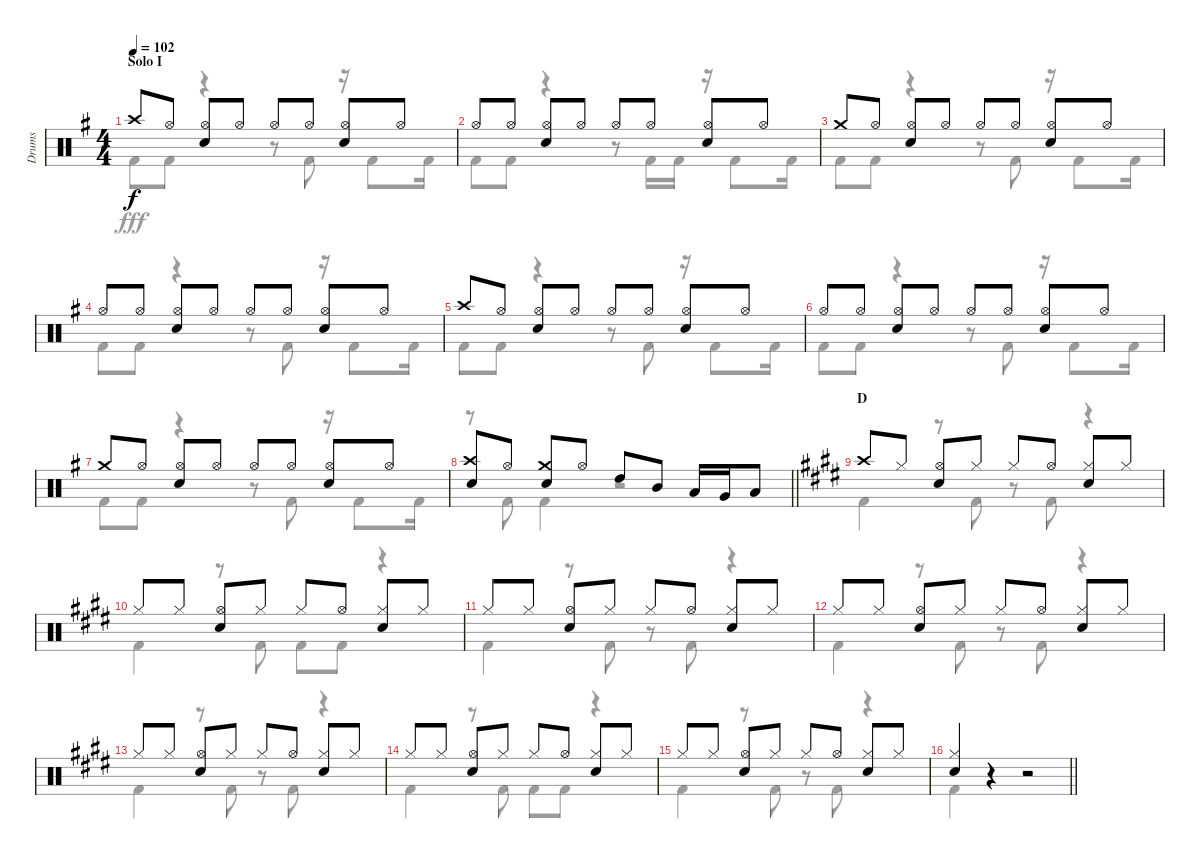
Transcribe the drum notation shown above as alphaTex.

\track ("Drums" "Drums") {instrument percussion}
\staff {score}
\articulation defaults
\voice
\ts (4 4)
\section ("" "Solo I")
\tempo 102
\clef neutral
\ks g "Crash high (hit)".8{dy f} "Hi-Hat (open)".8
("Hi-Hat (open)" "Snare (hit) 2").8 "Hi-Hat (open)".8 "Hi-Hat (open)".8 "Hi-Hat (open)".8 ("Hi-Hat (open)" "Snare (hit) 2").8 "Hi-Hat (open)".8 |
"Hi-Hat (open)".8 "Hi-Hat (open)".8 ("Hi-Hat (open)" "Snare (hit) 2").8 "Hi-Hat (open)".8 "Hi-Hat (open)".8 "Hi-Hat (open)".8 ("Hi-Hat (open)" "Snare (hit) 2").8 "Hi-Hat (open)".8 |
"Crash medium (hit)".8 "Hi-Hat (open)".8 ("Hi-Hat (open)" "Snare (hit) 2").8 "Hi-Hat (open)".8 "Hi-Hat (open)".8 "Hi-Hat (open)".8 ("Hi-Hat (open)" "Snare (hit) 2").8 "Hi-Hat (open)".8 |
"Hi-Hat (open)".8 "Hi-Hat (open)".8 ("Hi-Hat (open)" "Snare (hit) 2").8 "Hi-Hat (open)".8 "Hi-Hat (open)".8 "Hi-Hat (open)".8 ("Hi-Hat (open)" "Snare (hit) 2").8 "Hi-Hat (open)".8 |
"Crash high (hit)".8 "Hi-Hat (open)".8 ("Hi-Hat (open)" "Snare (hit) 2").8 "Hi-Hat (open)".8 "Hi-Hat (open)".8 "Hi-Hat (open)".8 ("Hi-Hat (open)" "Snare (hit) 2").8 "Hi-Hat (open)".8 |
"Hi-Hat (open)".8 "Hi-Hat (open)".8 ("Hi-Hat (open)" "Snare (hit) 2").8 "Hi-Hat (open)".8 "Hi-Hat (open)".8 "Hi-Hat (open)".8 ("Hi-Hat (open)" "Snare (hit) 2").8 "Hi-Hat (open)".8 |
"Crash medium (hit)".8 "Hi-Hat (open)".8 ("Hi-Hat (open)" "Snare (hit) 2").8 "Hi-Hat (open)".8 "Hi-Hat (open)".8 "Hi-Hat (open)".8 ("Hi-Hat (open)" "Snare (hit) 2").8 "Hi-Hat (open)".8 |
\barLineRight lightlight
("Crash high (hit)" "Snare (hit) 2").8 "Hi-Hat (open)".8 ("Crash medium (hit)" "Snare (hit) 2").8 "Hi-Hat (open)".8 "High Tom (hit)".8 "Mid Tom (hit)".8 "Low Tom (hit)".16 "Very Low Tom (hit)".16 "Low Floor Tom (hit)".8 |
\section ("" "D")
\ks e "Crash high (hit)".8 "Hi-Hat (closed)".8
("Hi-Hat (open)" "Snare (hit) 2").8 "Hi-Hat (closed)".8 "Hi-Hat (closed)".8 "Hi-Hat (open)".8 ("Hi-Hat (closed)" "Snare (hit) 2").8 "Hi-Hat (closed)".8 |
"Hi-Hat (closed)".8 "Hi-Hat (closed)".8 ("Hi-Hat (open)" "Snare (hit) 2").8 "Hi-Hat (closed)".8 "Hi-Hat (closed)".8 "Hi-Hat (open)".8 ("Hi-Hat (closed)" "Snare (hit) 2").8 "Hi-Hat (closed)".8 |
"Hi-Hat (closed)".8 "Hi-Hat (closed)".8 ("Hi-Hat (open)" "Snare (hit) 2").8 "Hi-Hat (closed)".8 "Hi-Hat (closed)".8 "Hi-Hat (open)".8 ("Hi-Hat (closed)" "Snare (hit) 2").8 "Hi-Hat (closed)".8 |
"Hi-Hat (closed)".8 "Hi-Hat (closed)".8 ("Hi-Hat (open)" "Snare (hit) 2").8 "Hi-Hat (closed)".8 "Hi-Hat (closed)".8 "Hi-Hat (open)".8 ("Hi-Hat (closed)" "Snare (hit) 2").8 "Hi-Hat (closed)".8 |
"Hi-Hat (closed)".8 "Hi-Hat (closed)".8 ("Hi-Hat (open)" "Snare (hit) 2").8 "Hi-Hat (closed)".8 "Hi-Hat (closed)".8 "Hi-Hat (open)".8 ("Hi-Hat (closed)" "Snare (hit) 2").8 "Hi-Hat (closed)".8 |
"Hi-Hat (closed)".8 "Hi-Hat (closed)".8 ("Hi-Hat (open)" "Snare (hit) 2").8 "Hi-Hat (closed)".8 "Hi-Hat (closed)".8 "Hi-Hat (open)".8 ("Hi-Hat (closed)" "Snare (hit) 2").8 "Hi-Hat (closed)".8 |
"Hi-Hat (closed)".8 "Hi-Hat (closed)".8 ("Hi-Hat (open)" "Snare (hit) 2").8 "Hi-Hat (closed)".8 "Hi-Hat (closed)".8 "Hi-Hat (open)".8 ("Hi-Hat (closed)" "Snare (hit) 2").8 "Hi-Hat (closed)".8 |
\barLineRight lightlight
("Hi-Hat (closed)" "Snare (hit) 2").4 r.4 r.2
\voice
\clef neutral
\ottava regular
\simile none
\ks g "Kick (hit) 2".8{dy fff} "Kick (hit) 2".8
r.4 r.8 "Kick (hit) 2".8 r.16 "Kick (hit) 2".8 "Kick (hit) 2".16 |
"Kick (hit) 2".8 "Kick (hit) 2".8 r.4 r.8 "Kick (hit) 2".16 "Kick (hit) 2".16 r.16 "Kick (hit) 2".8 "Kick (hit) 2".16 |
"Kick (hit) 2".8 "Kick (hit) 2".8 r.4 r.8 "Kick (hit) 2".8 r.16 "Kick (hit) 2".8 "Kick (hit) 2".16 |
"Kick (hit) 2".8 "Kick (hit) 2".8 r.4 r.8 "Kick (hit) 2".8 r.16 "Kick (hit) 2".8 "Kick (hit) 2".16 |
"Kick (hit) 2".8 "Kick (hit) 2".8 r.4 r.8 "Kick (hit) 2".8 r.16 "Kick (hit) 2".8 "Kick (hit) 2".16 |
"Kick (hit) 2".8 "Kick (hit) 2".8 r.4 r.8 "Kick (hit) 2".8 r.16 "Kick (hit) 2".8 "Kick (hit) 2".16 |
"Kick (hit) 2".8 "Kick (hit) 2".8 r.4 r.8 "Kick (hit) 2".8 r.16 "Kick (hit) 2".8 "Kick (hit) 2".16 |
\barLineRight lightlight
r.8 "Kick (hit) 2".8 "Kick (hit) 2".4 r.2 |
\ks e "Kick (hit) 2".4
r.8 "Kick (hit) 2".8 r.8 "Kick (hit) 2".8 r.4 |
"Kick (hit) 2".4 r.8 "Kick (hit) 2".8 "Kick (hit) 2".8 "Kick (hit) 2".8 r.4 |
"Kick (hit) 2".4 r.8 "Kick (hit) 2".8 r.8 "Kick (hit) 2".8 r.4 |
"Kick (hit) 2".4 r.8 "Kick (hit) 2".8 r.8 "Kick (hit) 2".8 r.4 |
"Kick (hit) 2".4 r.8 "Kick (hit) 2".8 r.8 "Kick (hit) 2".8 r.4 |
"Kick (hit) 2".4 r.8 "Kick (hit) 2".8 "Kick (hit) 2".8 "Kick (hit) 2".8 r.4 |
"Kick (hit) 2".4 r.8 "Kick (hit) 2".8 r.8 "Kick (hit) 2".8 r.4 |
\barLineRight lightlight "Kick (hit) 2".4
r.4 r.2
